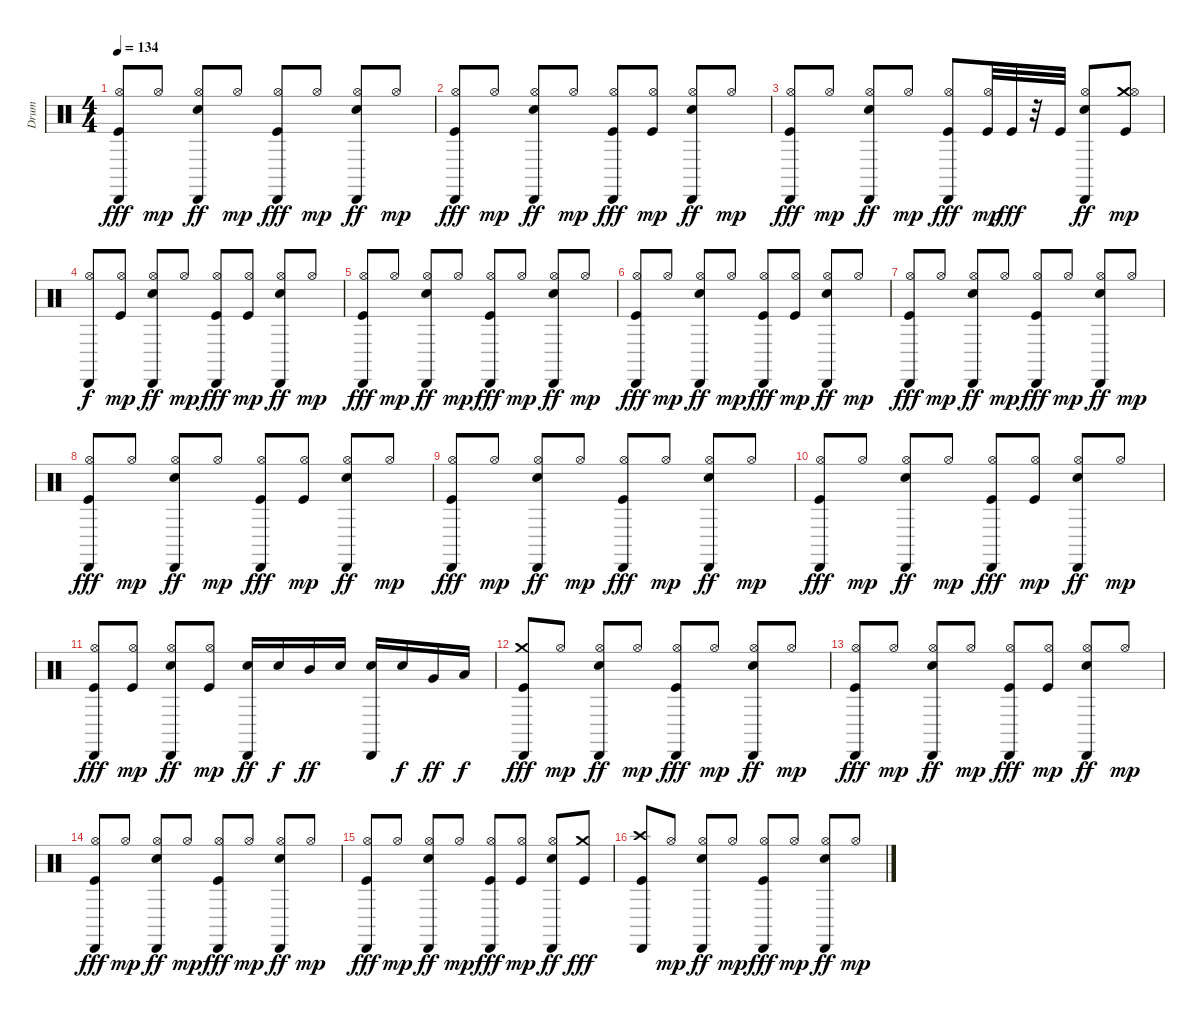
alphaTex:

\track ("Drum" "Drum") {instrument percussion}
\staff {score}
\articulation defaults
\ts (4 4)
\tempo 134
\clef neutral
\ks c
("Cabasa (hit)" "Kick (hit)" "Hi-Hat (open)").8{dy fff} "Hi-Hat (open)".8{dy mp} ("Cabasa (hit)" "Electric Snare (hit)" "Hi-Hat (open)").8{dy ff} "Hi-Hat (open)".8{dy mp} ("Cabasa (hit)" "Kick (hit)" "Hi-Hat (open)").8{dy fff} "Hi-Hat (open)".8{dy mp} ("Cabasa (hit)" "Electric Snare (hit)" "Hi-Hat (open)").8{dy ff} "Hi-Hat (open)".8{dy mp} |
("Kick (hit)" "Hi-Hat (open)" "Cabasa (hit)").8{dy fff} "Hi-Hat (open)".8{dy mp} ("Electric Snare (hit)" "Cabasa (hit)" "Hi-Hat (open)").8{dy ff} "Hi-Hat (open)".8{dy mp} ("Cabasa (hit)" "Kick (hit)" "Hi-Hat (open)").8{dy fff} ("Kick (hit)" "Hi-Hat (open)").8{dy mp} ("Cabasa (hit)" "Electric Snare (hit)" "Hi-Hat (open)").8{dy ff} "Hi-Hat (open)".8{dy mp} |
("Kick (hit)" "Hi-Hat (open)" "Cabasa (hit)").8{dy fff} "Hi-Hat (open)".8{dy mp} ("Electric Snare (hit)" "Cabasa (hit)" "Hi-Hat (open)").8{dy ff} "Hi-Hat (open)".8{dy mp} ("Cabasa (hit)" "Kick (hit)" "Hi-Hat (open)").8{dy fff} ("Kick (hit)" "Hi-Hat (open)").32{dy mp} "Kick (hit)".32{dy fff} r.32 "Kick (hit)".32 ("Cabasa (hit)" "Electric Snare (hit)" "Hi-Hat (open)").8{dy ff} ("Kick (hit)" "Crash medium (hit)" "Hi-Hat (open)").8{dy mp} |
("Cabasa (hit)" "Hi-Hat (open)").8{dy f} ("Kick (hit)" "Hi-Hat (open)").8{dy mp} ("Cabasa (hit)" "Electric Snare (hit)" "Hi-Hat (open)").8{dy ff} "Hi-Hat (open)".8{dy mp} ("Cabasa (hit)" "Kick (hit)" "Hi-Hat (open)").8{dy fff} ("Kick (hit)" "Hi-Hat (open)").8{dy mp} ("Cabasa (hit)" "Electric Snare (hit)" "Hi-Hat (open)").8{dy ff} "Hi-Hat (open)".8{dy mp} |
("Kick (hit)" "Hi-Hat (open)" "Cabasa (hit)").8{dy fff} "Hi-Hat (open)".8{dy mp} ("Electric Snare (hit)" "Cabasa (hit)" "Hi-Hat (open)").8{dy ff} "Hi-Hat (open)".8{dy mp} ("Cabasa (hit)" "Kick (hit)" "Hi-Hat (open)").8{dy fff} "Hi-Hat (open)".8{dy mp} ("Cabasa (hit)" "Electric Snare (hit)" "Hi-Hat (open)").8{dy ff} "Hi-Hat (open)".8{dy mp} |
("Cabasa (hit)" "Kick (hit)" "Hi-Hat (open)").8{dy fff} "Hi-Hat (open)".8{dy mp} ("Cabasa (hit)" "Electric Snare (hit)" "Hi-Hat (open)").8{dy ff} "Hi-Hat (open)".8{dy mp} ("Cabasa (hit)" "Kick (hit)" "Hi-Hat (open)").8{dy fff} ("Kick (hit)" "Hi-Hat (open)").8{dy mp} ("Cabasa (hit)" "Electric Snare (hit)" "Hi-Hat (open)").8{dy ff} "Hi-Hat (open)".8{dy mp} |
("Kick (hit)" "Hi-Hat (open)" "Cabasa (hit)").8{dy fff} "Hi-Hat (open)".8{dy mp} ("Electric Snare (hit)" "Cabasa (hit)" "Hi-Hat (open)").8{dy ff} "Hi-Hat (open)".8{dy mp} ("Cabasa (hit)" "Kick (hit)" "Hi-Hat (open)").8{dy fff} "Hi-Hat (open)".8{dy mp} ("Cabasa (hit)" "Electric Snare (hit)" "Hi-Hat (open)").8{dy ff} "Hi-Hat (open)".8{dy mp} |
("Cabasa (hit)" "Kick (hit)" "Hi-Hat (open)").8{dy fff} "Hi-Hat (open)".8{dy mp} ("Cabasa (hit)" "Electric Snare (hit)" "Hi-Hat (open)").8{dy ff} "Hi-Hat (open)".8{dy mp} ("Cabasa (hit)" "Kick (hit)" "Hi-Hat (open)").8{dy fff} ("Kick (hit)" "Hi-Hat (open)").8{dy mp} ("Cabasa (hit)" "Electric Snare (hit)" "Hi-Hat (open)").8{dy ff} "Hi-Hat (open)".8{dy mp} |
("Kick (hit)" "Hi-Hat (open)" "Cabasa (hit)").8{dy fff} "Hi-Hat (open)".8{dy mp} ("Electric Snare (hit)" "Cabasa (hit)" "Hi-Hat (open)").8{dy ff} "Hi-Hat (open)".8{dy mp} ("Cabasa (hit)" "Kick (hit)" "Hi-Hat (open)").8{dy fff} "Hi-Hat (open)".8{dy mp} ("Cabasa (hit)" "Electric Snare (hit)" "Hi-Hat (open)").8{dy ff} "Hi-Hat (open)".8{dy mp} |
("Cabasa (hit)" "Kick (hit)" "Hi-Hat (open)").8{dy fff} "Hi-Hat (open)".8{dy mp} ("Cabasa (hit)" "Electric Snare (hit)" "Hi-Hat (open)").8{dy ff} "Hi-Hat (open)".8{dy mp} ("Cabasa (hit)" "Kick (hit)" "Hi-Hat (open)").8{dy fff} ("Kick (hit)" "Hi-Hat (open)").8{dy mp} ("Cabasa (hit)" "Electric Snare (hit)" "Hi-Hat (open)").8{dy ff} "Hi-Hat (open)".8{dy mp} |
("Cabasa (hit)" "Kick (hit)" "Hi-Hat (open)").8{dy fff} ("Kick (hit)" "Hi-Hat (open)").8{dy mp} ("Cabasa (hit)" "Electric Snare (hit)" "Hi-Hat (open)").8{dy ff} ("Kick (hit)" "Hi-Hat (open)").8{dy mp} ("Cabasa (hit)" "Electric Snare (hit)").16{dy ff} "Electric Snare (hit)".16{dy f} "Mid Tom (hit)".16{dy ff} "Snare (hit) 2".16 ("Cabasa (hit)" "Electric Snare (hit)").16 "Electric Snare (hit)".16{dy f} "Very Low Tom (hit)".16{dy ff} "Low Floor Tom (hit)".16{dy f} |
("Cabasa (hit)" "Crash medium (hit)" "Kick (hit)").8{dy fff} "Hi-Hat (open)".8{dy mp} ("Electric Snare (hit)" "Cabasa (hit)" "Hi-Hat (open)").8{dy ff} "Hi-Hat (open)".8{dy mp} ("Kick (hit)" "Cabasa (hit)" "Hi-Hat (open)").8{dy fff} "Hi-Hat (open)".8{dy mp} ("Electric Snare (hit)" "Cabasa (hit)" "Hi-Hat (open)").8{dy ff} "Hi-Hat (open)".8{dy mp} |
("Kick (hit)" "Hi-Hat (open)" "Cabasa (hit)").8{dy fff} "Hi-Hat (open)".8{dy mp} ("Electric Snare (hit)" "Cabasa (hit)" "Hi-Hat (open)").8{dy ff} "Hi-Hat (open)".8{dy mp} ("Cabasa (hit)" "Kick (hit)" "Hi-Hat (open)").8{dy fff} ("Kick (hit)" "Hi-Hat (open)").8{dy mp} ("Cabasa (hit)" "Electric Snare (hit)" "Hi-Hat (open)").8{dy ff} "Hi-Hat (open)".8{dy mp} |
("Kick (hit)" "Hi-Hat (open)" "Cabasa (hit)").8{dy fff} "Hi-Hat (open)".8{dy mp} ("Electric Snare (hit)" "Cabasa (hit)" "Hi-Hat (open)").8{dy ff} "Hi-Hat (open)".8{dy mp} ("Cabasa (hit)" "Kick (hit)" "Hi-Hat (open)").8{dy fff} "Hi-Hat (open)".8{dy mp} ("Cabasa (hit)" "Electric Snare (hit)" "Hi-Hat (open)").8{dy ff} "Hi-Hat (open)".8{dy mp} |
("Kick (hit)" "Hi-Hat (open)" "Cabasa (hit)").8{dy fff} "Hi-Hat (open)".8{dy mp} ("Electric Snare (hit)" "Cabasa (hit)" "Hi-Hat (open)").8{dy ff} "Hi-Hat (open)".8{dy mp} ("Cabasa (hit)" "Kick (hit)" "Hi-Hat (open)").8{dy fff} ("Kick (hit)" "Hi-Hat (open)").8{dy mp} ("Cabasa (hit)" "Electric Snare (hit)" "Hi-Hat (open)").8{dy ff} ("Kick (hit)" "Crash medium (hit)").8{dy fff} |
("Cabasa (hit)" "Crash high (hit)" "Kick (hit)").8 "Hi-Hat (open)".8{dy mp} ("Electric Snare (hit)" "Cabasa (hit)" "Hi-Hat (open)").8{dy ff} "Hi-Hat (open)".8{dy mp} ("Kick (hit)" "Cabasa (hit)" "Hi-Hat (open)").8{dy fff} "Hi-Hat (open)".8{dy mp} ("Electric Snare (hit)" "Cabasa (hit)" "Hi-Hat (open)").8{dy ff} "Hi-Hat (open)".8{dy mp}
